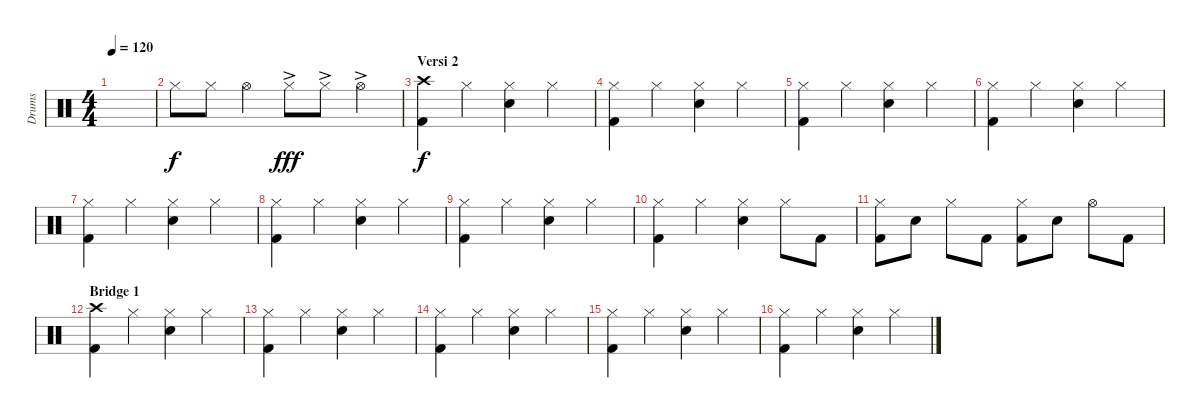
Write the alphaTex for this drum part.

\track ("Drums" "Drums") {instrument percussion}
\staff {score}
\articulation defaults
\ts (4 4)
\tempo 120
\clef neutral
\ks c
|
"Hi-Hat (closed)".8 "Hi-Hat (closed)".8 "Hi-Hat (open)".4 "Hi-Hat (closed)"{ac}.8{dy fff} "Hi-Hat (closed)"{ac}.8 "Hi-Hat (open)"{ac}.4 |
\section ("" "Versi 2")
("Crash high (hit)" "Kick (hit) 2").4{dy f} "Hi-Hat (closed)".4 ("Hi-Hat (closed)" "Electric Snare (hit)").4 "Hi-Hat (closed)".4 |
("Hi-Hat (closed)" "Kick (hit) 2").4 "Hi-Hat (closed)".4 ("Hi-Hat (closed)" "Electric Snare (hit)").4 "Hi-Hat (closed)".4 |
("Hi-Hat (closed)" "Kick (hit) 2").4 "Hi-Hat (closed)".4 ("Hi-Hat (closed)" "Electric Snare (hit)").4 "Hi-Hat (closed)".4 |
("Hi-Hat (closed)" "Kick (hit) 2").4 "Hi-Hat (closed)".4 ("Hi-Hat (closed)" "Electric Snare (hit)").4 "Hi-Hat (closed)".4 |
("Hi-Hat (closed)" "Kick (hit) 2").4 "Hi-Hat (closed)".4 ("Hi-Hat (closed)" "Electric Snare (hit)").4 "Hi-Hat (closed)".4 |
("Hi-Hat (closed)" "Kick (hit) 2").4 "Hi-Hat (closed)".4 ("Hi-Hat (closed)" "Electric Snare (hit)").4 "Hi-Hat (closed)".4 |
("Hi-Hat (closed)" "Kick (hit) 2").4 "Hi-Hat (closed)".4 ("Hi-Hat (closed)" "Electric Snare (hit)").4 "Hi-Hat (closed)".4 |
("Hi-Hat (closed)" "Kick (hit) 2").4 "Hi-Hat (closed)".4 ("Hi-Hat (closed)" "Electric Snare (hit)").4 "Hi-Hat (closed)".8 "Kick (hit) 2".8 |
("Hi-Hat (closed)" "Kick (hit) 2").8 "Electric Snare (hit)".8 "Hi-Hat (closed)".8 "Kick (hit) 2".8 ("Hi-Hat (closed)" "Kick (hit) 2").8 "Electric Snare (hit)".8 "Hi-Hat (open)".8 "Kick (hit) 2".8 |
\section ("" "Bridge 1")
("Crash high (hit)" "Kick (hit) 2").4 "Hi-Hat (closed)".4 ("Hi-Hat (closed)" "Electric Snare (hit)").4 "Hi-Hat (closed)".4 |
("Hi-Hat (closed)" "Kick (hit) 2").4 "Hi-Hat (closed)".4 ("Hi-Hat (closed)" "Electric Snare (hit)").4 "Hi-Hat (closed)".4 |
("Hi-Hat (closed)" "Kick (hit) 2").4 "Hi-Hat (closed)".4 ("Hi-Hat (closed)" "Electric Snare (hit)").4 "Hi-Hat (closed)".4 |
("Hi-Hat (closed)" "Kick (hit) 2").4 "Hi-Hat (closed)".4 ("Hi-Hat (closed)" "Electric Snare (hit)").4 "Hi-Hat (closed)".4 |
("Hi-Hat (closed)" "Kick (hit) 2").4 "Hi-Hat (closed)".4 ("Hi-Hat (closed)" "Electric Snare (hit)").4 "Hi-Hat (closed)".4
